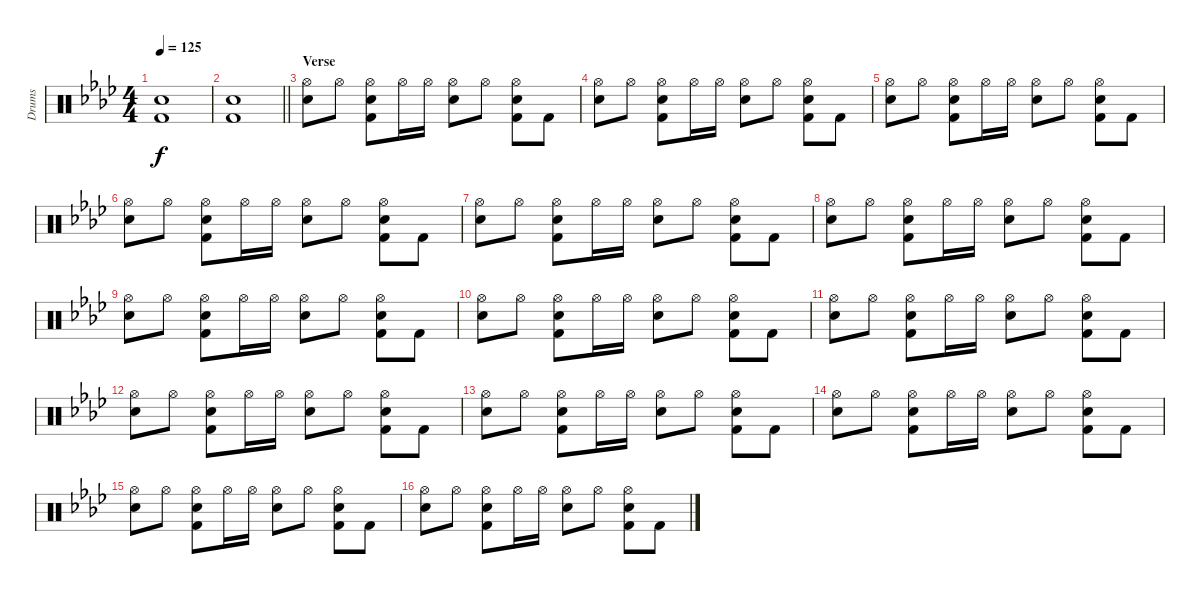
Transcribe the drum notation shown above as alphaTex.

\track ("Drums" "Drums") {instrument percussion}
\staff {score}
\articulation defaults
\ts (4 4)
\tempo 125
\clef neutral
\ks ab
("Electric Snare (hit)" "Kick (hit) 2").1{dy f} |
\barLineRight lightlight
("Electric Snare (hit)" "Kick (hit) 2").1 |
\section ("" "Verse")
("Hi-Hat (open)" "Electric Snare (hit)").8 "Hi-Hat (open)".8 ("Hi-Hat (open)" "Electric Snare (hit)" "Kick (hit) 2").8 "Hi-Hat (open)".16 "Hi-Hat (open)".16 ("Hi-Hat (open)" "Electric Snare (hit)").8 "Hi-Hat (open)".8 ("Hi-Hat (open)" "Electric Snare (hit)" "Kick (hit) 2").8 "Kick (hit) 2".8 |
("Hi-Hat (open)" "Electric Snare (hit)").8 "Hi-Hat (open)".8 ("Hi-Hat (open)" "Electric Snare (hit)" "Kick (hit) 2").8 "Hi-Hat (open)".16 "Hi-Hat (open)".16 ("Hi-Hat (open)" "Electric Snare (hit)").8 "Hi-Hat (open)".8 ("Hi-Hat (open)" "Electric Snare (hit)" "Kick (hit) 2").8 "Kick (hit) 2".8 |
("Hi-Hat (open)" "Electric Snare (hit)").8 "Hi-Hat (open)".8 ("Hi-Hat (open)" "Electric Snare (hit)" "Kick (hit) 2").8 "Hi-Hat (open)".16 "Hi-Hat (open)".16 ("Hi-Hat (open)" "Electric Snare (hit)").8 "Hi-Hat (open)".8 ("Hi-Hat (open)" "Electric Snare (hit)" "Kick (hit) 2").8 "Kick (hit) 2".8 |
("Hi-Hat (open)" "Electric Snare (hit)").8 "Hi-Hat (open)".8 ("Hi-Hat (open)" "Electric Snare (hit)" "Kick (hit) 2").8 "Hi-Hat (open)".16 "Hi-Hat (open)".16 ("Hi-Hat (open)" "Electric Snare (hit)").8 "Hi-Hat (open)".8 ("Hi-Hat (open)" "Electric Snare (hit)" "Kick (hit) 2").8 "Kick (hit) 2".8 |
("Hi-Hat (open)" "Electric Snare (hit)").8 "Hi-Hat (open)".8 ("Hi-Hat (open)" "Electric Snare (hit)" "Kick (hit) 2").8 "Hi-Hat (open)".16 "Hi-Hat (open)".16 ("Hi-Hat (open)" "Electric Snare (hit)").8 "Hi-Hat (open)".8 ("Hi-Hat (open)" "Electric Snare (hit)" "Kick (hit) 2").8 "Kick (hit) 2".8 |
("Hi-Hat (open)" "Electric Snare (hit)").8 "Hi-Hat (open)".8 ("Hi-Hat (open)" "Electric Snare (hit)" "Kick (hit) 2").8 "Hi-Hat (open)".16 "Hi-Hat (open)".16 ("Hi-Hat (open)" "Electric Snare (hit)").8 "Hi-Hat (open)".8 ("Hi-Hat (open)" "Electric Snare (hit)" "Kick (hit) 2").8 "Kick (hit) 2".8 |
("Hi-Hat (open)" "Electric Snare (hit)").8 "Hi-Hat (open)".8 ("Hi-Hat (open)" "Electric Snare (hit)" "Kick (hit) 2").8 "Hi-Hat (open)".16 "Hi-Hat (open)".16 ("Hi-Hat (open)" "Electric Snare (hit)").8 "Hi-Hat (open)".8 ("Hi-Hat (open)" "Electric Snare (hit)" "Kick (hit) 2").8 "Kick (hit) 2".8 |
("Hi-Hat (open)" "Electric Snare (hit)").8 "Hi-Hat (open)".8 ("Hi-Hat (open)" "Electric Snare (hit)" "Kick (hit) 2").8 "Hi-Hat (open)".16 "Hi-Hat (open)".16 ("Hi-Hat (open)" "Electric Snare (hit)").8 "Hi-Hat (open)".8 ("Hi-Hat (open)" "Electric Snare (hit)" "Kick (hit) 2").8 "Kick (hit) 2".8 |
("Hi-Hat (open)" "Electric Snare (hit)").8 "Hi-Hat (open)".8 ("Hi-Hat (open)" "Electric Snare (hit)" "Kick (hit) 2").8 "Hi-Hat (open)".16 "Hi-Hat (open)".16 ("Hi-Hat (open)" "Electric Snare (hit)").8 "Hi-Hat (open)".8 ("Hi-Hat (open)" "Electric Snare (hit)" "Kick (hit) 2").8 "Kick (hit) 2".8 |
("Hi-Hat (open)" "Electric Snare (hit)").8 "Hi-Hat (open)".8 ("Hi-Hat (open)" "Electric Snare (hit)" "Kick (hit) 2").8 "Hi-Hat (open)".16 "Hi-Hat (open)".16 ("Hi-Hat (open)" "Electric Snare (hit)").8 "Hi-Hat (open)".8 ("Hi-Hat (open)" "Electric Snare (hit)" "Kick (hit) 2").8 "Kick (hit) 2".8 |
("Hi-Hat (open)" "Electric Snare (hit)").8 "Hi-Hat (open)".8 ("Hi-Hat (open)" "Electric Snare (hit)" "Kick (hit) 2").8 "Hi-Hat (open)".16 "Hi-Hat (open)".16 ("Hi-Hat (open)" "Electric Snare (hit)").8 "Hi-Hat (open)".8 ("Hi-Hat (open)" "Electric Snare (hit)" "Kick (hit) 2").8 "Kick (hit) 2".8 |
("Hi-Hat (open)" "Electric Snare (hit)").8 "Hi-Hat (open)".8 ("Hi-Hat (open)" "Electric Snare (hit)" "Kick (hit) 2").8 "Hi-Hat (open)".16 "Hi-Hat (open)".16 ("Hi-Hat (open)" "Electric Snare (hit)").8 "Hi-Hat (open)".8 ("Hi-Hat (open)" "Electric Snare (hit)" "Kick (hit) 2").8 "Kick (hit) 2".8 |
("Hi-Hat (open)" "Electric Snare (hit)").8 "Hi-Hat (open)".8 ("Hi-Hat (open)" "Electric Snare (hit)" "Kick (hit) 2").8 "Hi-Hat (open)".16 "Hi-Hat (open)".16 ("Hi-Hat (open)" "Electric Snare (hit)").8 "Hi-Hat (open)".8 ("Hi-Hat (open)" "Electric Snare (hit)" "Kick (hit) 2").8 "Kick (hit) 2".8 |
("Hi-Hat (open)" "Electric Snare (hit)").8 "Hi-Hat (open)".8 ("Hi-Hat (open)" "Electric Snare (hit)" "Kick (hit) 2").8 "Hi-Hat (open)".16 "Hi-Hat (open)".16 ("Hi-Hat (open)" "Electric Snare (hit)").8 "Hi-Hat (open)".8 ("Hi-Hat (open)" "Electric Snare (hit)" "Kick (hit) 2").8 "Kick (hit) 2".8
